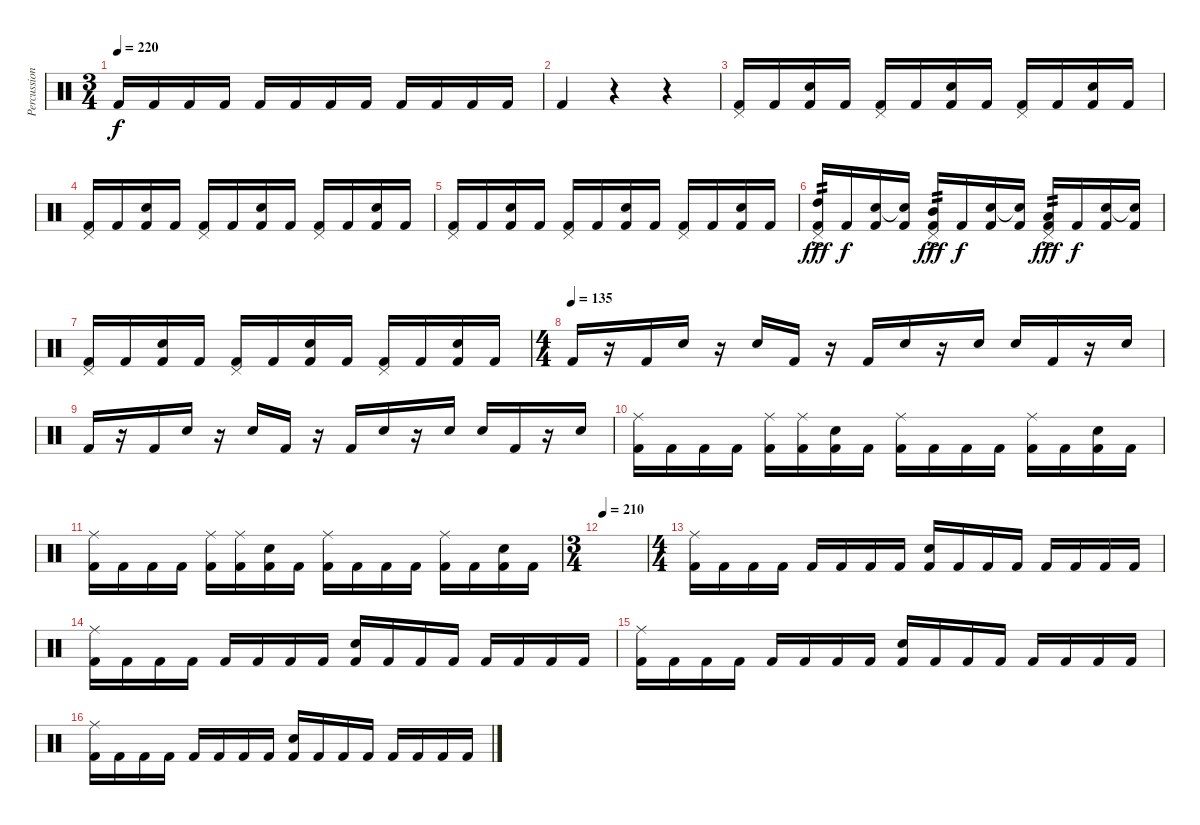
\track ("Percussions" "Percussion") {instrument percussion}
\staff {score}
\articulation defaults
\ts (3 4)
\tempo 220
\clef neutral
\ks c "Kick (hit) 2".16{dy f} "Kick (hit) 2".16 "Kick (hit) 2".16 "Kick (hit) 2".16 "Kick (hit) 2".16 "Kick (hit) 2".16 "Kick (hit) 2".16 "Kick (hit) 2".16 "Kick (hit) 2".16 "Kick (hit) 2".16 "Kick (hit) 2".16 "Kick (hit) 2".16
|
"Kick (hit) 2".4 r.4 r.4 |
("Pedal Hi-Hat (hit)" "Kick (hit) 2").16 "Kick (hit) 2".16 ("Snare (hit) 2" "Kick (hit) 2").16 "Kick (hit) 2".16 ("Pedal Hi-Hat (hit)" "Kick (hit) 2").16 "Kick (hit) 2".16 ("Snare (hit) 2" "Kick (hit) 2").16 "Kick (hit) 2".16 ("Pedal Hi-Hat (hit)" "Kick (hit) 2").16 "Kick (hit) 2".16 ("Snare (hit) 2" "Kick (hit) 2").16 "Kick (hit) 2".16 |
("Pedal Hi-Hat (hit)" "Kick (hit) 2").16 "Kick (hit) 2".16 ("Snare (hit) 2" "Kick (hit) 2").16 "Kick (hit) 2".16 ("Pedal Hi-Hat (hit)" "Kick (hit) 2").16 "Kick (hit) 2".16 ("Snare (hit) 2" "Kick (hit) 2").16 "Kick (hit) 2".16 ("Pedal Hi-Hat (hit)" "Kick (hit) 2").16 "Kick (hit) 2".16 ("Snare (hit) 2" "Kick (hit) 2").16 "Kick (hit) 2".16 |
("Pedal Hi-Hat (hit)" "Kick (hit) 2").16 "Kick (hit) 2".16 ("Snare (hit) 2" "Kick (hit) 2").16 "Kick (hit) 2".16 ("Pedal Hi-Hat (hit)" "Kick (hit) 2").16 "Kick (hit) 2".16 ("Snare (hit) 2" "Kick (hit) 2").16 "Kick (hit) 2".16 ("Pedal Hi-Hat (hit)" "Kick (hit) 2").16 "Kick (hit) 2".16 ("Snare (hit) 2" "Kick (hit) 2").16 "Kick (hit) 2".16 |
("High Tom (hit)"{ac} "Pedal Hi-Hat (hit)" "Kick (hit) 2").16{tp 2 dy fff} "Kick (hit) 2".16{dy f} ("Snare (hit) 2" "Kick (hit) 2").16 ("Snare (hit)"{t} "Kick (hit) 2").16 ("Mid Tom (hit)"{ac} "Pedal Hi-Hat (hit)" "Kick (hit) 2").16{tp 2 dy fff} "Kick (hit) 2".16{dy f} ("Snare (hit) 2" "Kick (hit) 2").16 ("Snare (hit)"{t} "Kick (hit) 2").16 ("Low Tom (hit)"{ac} "Pedal Hi-Hat (hit)" "Kick (hit) 2").16{tp 2 dy fff} "Kick (hit) 2".16{dy f} ("Snare (hit) 2" "Kick (hit) 2").16 ("Snare (hit)"{t} "Kick (hit) 2").16 |
("Pedal Hi-Hat (hit)" "Kick (hit) 2").16 "Kick (hit) 2".16 ("Snare (hit) 2" "Kick (hit) 2").16 "Kick (hit) 2".16 ("Pedal Hi-Hat (hit)" "Kick (hit) 2").16 "Kick (hit) 2".16 ("Snare (hit) 2" "Kick (hit) 2").16 "Kick (hit) 2".16 ("Pedal Hi-Hat (hit)" "Kick (hit) 2").16 "Kick (hit) 2".16 ("Snare (hit) 2" "Kick (hit) 2").16 "Kick (hit) 2".16 |
\ts (4 4)
\tempo (135)
"Kick (hit) 2".16 r.16 "Kick (hit) 2".16 "Snare (hit) 2".16 r.16 "Snare (hit) 2".16 "Kick (hit) 2".16 r.16 "Kick (hit) 2".16 "Snare (hit) 2".16 r.16 "Snare (hit) 2".16 "Snare (hit) 2".16 "Kick (hit) 2".16 r.16 "Snare (hit) 2".16 |
"Kick (hit) 2".16 r.16 "Kick (hit) 2".16 "Snare (hit) 2".16 r.16 "Snare (hit) 2".16 "Kick (hit) 2".16 r.16 "Kick (hit) 2".16 "Snare (hit) 2".16 r.16 "Snare (hit) 2".16 "Snare (hit) 2".16 "Kick (hit) 2".16 r.16 "Snare (hit) 2".16 |
("Ride (middle)" "Kick (hit) 2").16 "Kick (hit) 2".16 "Kick (hit) 2".16 "Kick (hit) 2".16 ("Ride (middle)" "Kick (hit) 2").16 ("Ride (middle)" "Kick (hit) 2").16 ("Snare (hit) 2" "Kick (hit) 2").16 "Kick (hit) 2".16 ("Ride (middle)" "Kick (hit) 2").16 "Kick (hit) 2".16 "Kick (hit) 2".16 "Kick (hit) 2".16 ("Ride (middle)" "Kick (hit) 2").16 "Kick (hit) 2".16 ("Snare (hit) 2" "Kick (hit) 2").16 "Kick (hit) 2".16 |
("Ride (middle)" "Kick (hit) 2").16 "Kick (hit) 2".16 "Kick (hit) 2".16 "Kick (hit) 2".16 ("Ride (middle)" "Kick (hit) 2").16 ("Ride (middle)" "Kick (hit) 2").16 ("Snare (hit) 2" "Kick (hit) 2").16 "Kick (hit) 2".16 ("Ride (middle)" "Kick (hit) 2").16 "Kick (hit) 2".16 "Kick (hit) 2".16 "Kick (hit) 2".16 ("Ride (middle)" "Kick (hit) 2").16 "Kick (hit) 2".16 ("Snare (hit) 2" "Kick (hit) 2").16 "Kick (hit) 2".16 |
\ts (3 4)
\tempo 210
|
\ts (4 4)
("Ride (middle)" "Kick (hit) 2").16 "Kick (hit) 2".16 "Kick (hit) 2".16 "Kick (hit) 2".16 "Kick (hit) 2".16 "Kick (hit) 2".16 "Kick (hit) 2".16 "Kick (hit) 2".16 ("Snare (hit) 2" "Kick (hit) 2").16 "Kick (hit) 2".16 "Kick (hit) 2".16 "Kick (hit) 2".16 "Kick (hit) 2".16 "Kick (hit) 2".16 "Kick (hit) 2".16 "Kick (hit) 2".16 |
("Ride (middle)" "Kick (hit) 2").16 "Kick (hit) 2".16 "Kick (hit) 2".16 "Kick (hit) 2".16 "Kick (hit) 2".16 "Kick (hit) 2".16 "Kick (hit) 2".16 "Kick (hit) 2".16 ("Snare (hit) 2" "Kick (hit) 2").16 "Kick (hit) 2".16 "Kick (hit) 2".16 "Kick (hit) 2".16 "Kick (hit) 2".16 "Kick (hit) 2".16 "Kick (hit) 2".16 "Kick (hit) 2".16 |
("Ride (middle)" "Kick (hit) 2").16 "Kick (hit) 2".16 "Kick (hit) 2".16 "Kick (hit) 2".16 "Kick (hit) 2".16 "Kick (hit) 2".16 "Kick (hit) 2".16 "Kick (hit) 2".16 ("Snare (hit) 2" "Kick (hit) 2").16 "Kick (hit) 2".16 "Kick (hit) 2".16 "Kick (hit) 2".16 "Kick (hit) 2".16 "Kick (hit) 2".16 "Kick (hit) 2".16 "Kick (hit) 2".16 |
("Ride (middle)" "Kick (hit) 2").16 "Kick (hit) 2".16 "Kick (hit) 2".16 "Kick (hit) 2".16 "Kick (hit) 2".16 "Kick (hit) 2".16 "Kick (hit) 2".16 "Kick (hit) 2".16 ("Snare (hit) 2" "Kick (hit) 2").16 "Kick (hit) 2".16 "Kick (hit) 2".16 "Kick (hit) 2".16 "Kick (hit) 2".16 "Kick (hit) 2".16 "Kick (hit) 2".16 "Kick (hit) 2".16
